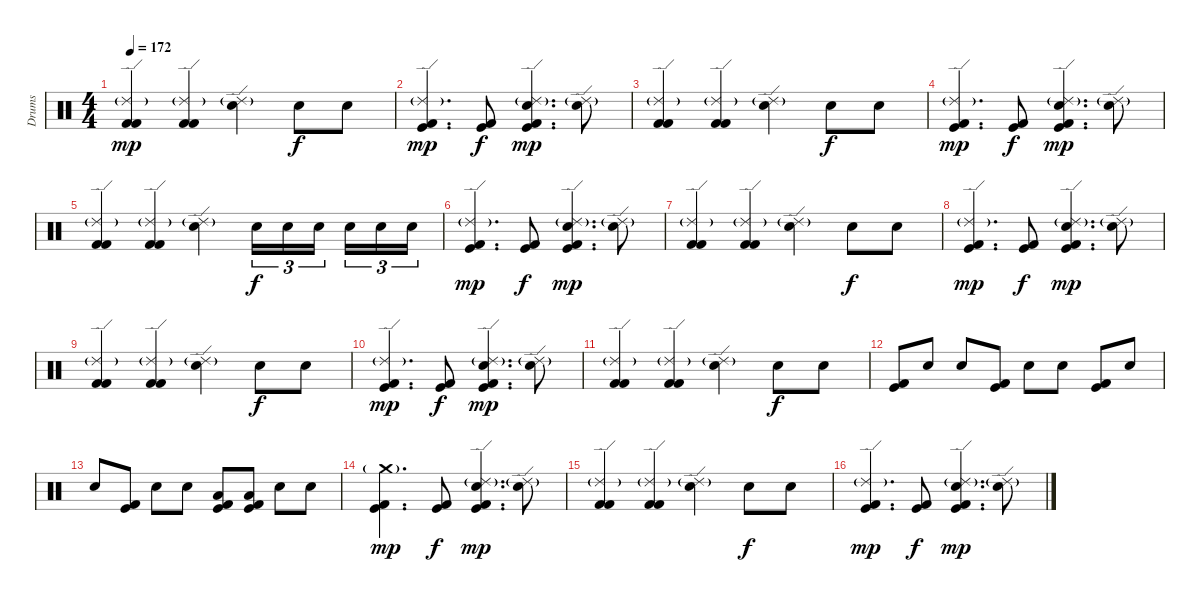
\track ("Drums" "Drums") {instrument percussion}
\staff {score}
\articulation defaults
\ts (4 4)
\tempo 172
\clef neutral
\ks c
("Ride (edge) 2"{g} "Kick (hit) 2" "Kick (hit) 2").4{dy mp} ("Ride (edge) 2"{g} "Kick (hit) 2" "Kick (hit) 2").4 ("Ride (edge) 2"{g} "Electric Snare (hit)").4 "Electric Snare (hit)".8{dy f} "Electric Snare (hit)".8 |
("Ride (edge) 2"{g} "Kick (hit)" "Kick (hit) 2").4{d dy mp} ("Kick (hit)" "Kick (hit) 2").8{dy f} ("Ride (edge) 2"{g} "Electric Snare (hit)" "Kick (hit)" "Kick (hit) 2").4{d dy mp} ("Ride (edge) 2"{g} "Electric Snare (hit)").8 |
("Ride (edge) 2"{g} "Kick (hit) 2" "Kick (hit) 2").4 ("Ride (edge) 2"{g} "Kick (hit) 2" "Kick (hit) 2").4 ("Ride (edge) 2"{g} "Electric Snare (hit)").4 "Electric Snare (hit)".8{dy f} "Electric Snare (hit)".8 |
("Ride (edge) 2"{g} "Kick (hit)" "Kick (hit) 2").4{d dy mp} ("Kick (hit)" "Kick (hit) 2").8{dy f} ("Ride (edge) 2"{g} "Electric Snare (hit)" "Kick (hit)" "Kick (hit) 2").4{d dy mp} ("Ride (edge) 2"{g} "Electric Snare (hit)").8 |
("Ride (edge) 2"{g} "Kick (hit) 2" "Kick (hit) 2").4 ("Ride (edge) 2"{g} "Kick (hit) 2" "Kick (hit) 2").4 ("Ride (edge) 2"{g} "Electric Snare (hit)").4 "Electric Snare (hit)".16{tu (3 2) dy f} "Electric Snare (hit)".16{tu (3 2)} "Electric Snare (hit)".16{tu (3 2) beam splitsecondary} "Electric Snare (hit)".16{tu (3 2)} "Electric Snare (hit)".16{tu (3 2)} "Electric Snare (hit)".16{tu (3 2)} |
("Ride (edge) 2"{g} "Kick (hit)" "Kick (hit) 2").4{d dy mp} ("Kick (hit)" "Kick (hit) 2").8{dy f} ("Ride (edge) 2"{g} "Electric Snare (hit)" "Kick (hit)" "Kick (hit) 2").4{d dy mp} ("Ride (edge) 2"{g} "Electric Snare (hit)").8 |
("Ride (edge) 2"{g} "Kick (hit) 2" "Kick (hit) 2").4 ("Ride (edge) 2"{g} "Kick (hit) 2" "Kick (hit) 2").4 ("Ride (edge) 2"{g} "Electric Snare (hit)").4 "Electric Snare (hit)".8{dy f} "Electric Snare (hit)".8 |
("Ride (edge) 2"{g} "Kick (hit)" "Kick (hit) 2").4{d dy mp} ("Kick (hit)" "Kick (hit) 2").8{dy f} ("Ride (edge) 2"{g} "Electric Snare (hit)" "Kick (hit)" "Kick (hit) 2").4{d dy mp} ("Ride (edge) 2"{g} "Electric Snare (hit)").8 |
("Ride (edge) 2"{g} "Kick (hit) 2" "Kick (hit) 2").4 ("Ride (edge) 2"{g} "Kick (hit) 2" "Kick (hit) 2").4 ("Ride (edge) 2"{g} "Electric Snare (hit)").4 "Electric Snare (hit)".8{dy f} "Electric Snare (hit)".8 |
("Ride (edge) 2"{g} "Kick (hit)" "Kick (hit) 2").4{d dy mp} ("Kick (hit)" "Kick (hit) 2").8{dy f} ("Ride (edge) 2"{g} "Electric Snare (hit)" "Kick (hit)" "Kick (hit) 2").4{d dy mp} ("Ride (edge) 2"{g} "Electric Snare (hit)").8 |
("Ride (edge) 2"{g} "Kick (hit) 2" "Kick (hit) 2").4 ("Ride (edge) 2"{g} "Kick (hit) 2" "Kick (hit) 2").4 ("Ride (edge) 2"{g} "Electric Snare (hit)").4 "Electric Snare (hit)".8{dy f} "Electric Snare (hit)".8 |
("Kick (hit)" "Kick (hit) 2").8 "Electric Snare (hit)".8 "Electric Snare (hit)".8 ("Kick (hit)" "Kick (hit) 2").8 "Electric Snare (hit)".8 "Electric Snare (hit)".8 ("Kick (hit)" "Kick (hit) 2").8 "Electric Snare (hit)".8 |
"Electric Snare (hit)".8 ("Kick (hit)" "Kick (hit) 2").8 "Electric Snare (hit)".8 "Electric Snare (hit)".8 ("Low Tom (hit)" "Kick (hit)" "Kick (hit) 2").8 ("Low Tom (hit)" "Kick (hit)" "Kick (hit) 2").8 "Electric Snare (hit)".8 "Electric Snare (hit)".8 |
("Crash medium (hit)"{g} "Kick (hit)" "Kick (hit) 2").4{d dy mp} ("Kick (hit)" "Kick (hit) 2").8{dy f} ("Ride (edge) 2"{g} "Electric Snare (hit)" "Kick (hit)" "Kick (hit) 2").4{d dy mp} ("Ride (edge) 2"{g} "Electric Snare (hit)").8 |
("Ride (edge) 2"{g} "Kick (hit) 2" "Kick (hit) 2").4 ("Ride (edge) 2"{g} "Kick (hit) 2" "Kick (hit) 2").4 ("Ride (edge) 2"{g} "Electric Snare (hit)").4 "Electric Snare (hit)".8{dy f} "Electric Snare (hit)".8 |
("Ride (edge) 2"{g} "Kick (hit)" "Kick (hit) 2").4{d dy mp} ("Kick (hit)" "Kick (hit) 2").8{dy f} ("Ride (edge) 2"{g} "Electric Snare (hit)" "Kick (hit)" "Kick (hit) 2").4{d dy mp} ("Ride (edge) 2"{g} "Electric Snare (hit)").8
